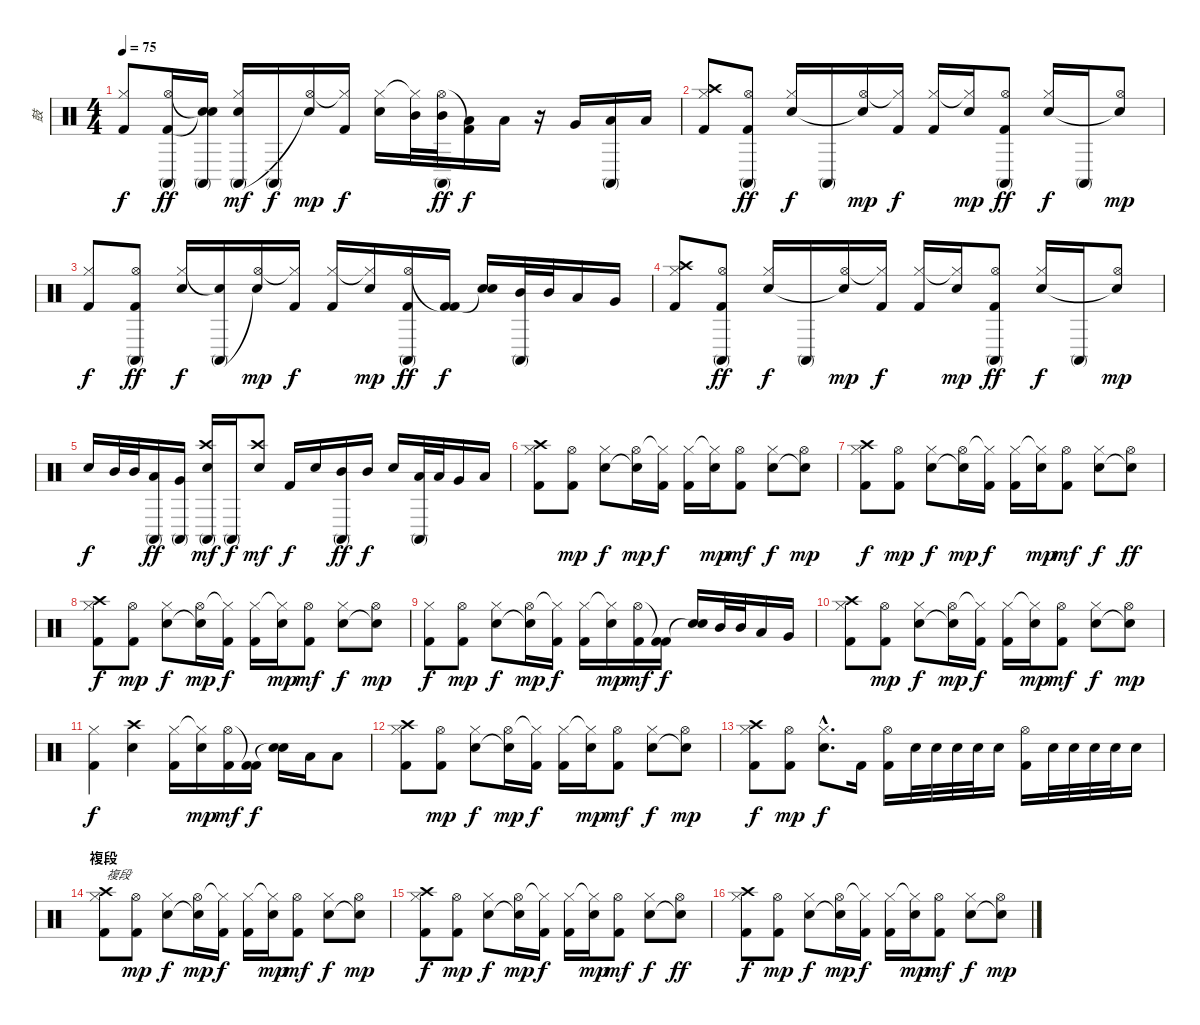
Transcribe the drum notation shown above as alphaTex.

\track ("鼓" "鼓") {instrument percussion}
\staff {score}
\articulation defaults
\ts (4 4)
\tempo 75
\clef neutral
\ks c
("Hi-Hat (closed)" "Kick (hit) 2").8{dy f} ("Hi-Hat (open)" "Conga high (mute)" "Kick (hit) 2").16{dy ff} ("Snare (hit)"{t} "Conga high (mute)" "Snare (hit)"{t}).16 ("Hi-Hat (closed)" "Conga high (mute)" "Electric Snare (hit)").16{dy mf} "Conga high (mute)".16{dy f} ("Hi-Hat (open)" "Snare (hit)"{t}).16{dy mp} ("Hi-Hat (closed)"{t} "Kick (hit) 2").16{dy f} ("Hi-Hat (closed)" "Electric Snare (hit)").16 ("Hi-Hat (closed)"{t} "Mid Tom (hit)").32 ("Hi-Hat (open)" "Mid Tom (hit)" "Conga high (mute)").32{dy ff} ("Kick (hit) 2"{t} "Low Tom (hit)").16{dy f} "Low Tom (hit)".16 r.16 "Very Low Tom (hit)".16 ("Conga high (mute)" "Low Floor Tom (hit)").16 "Low Floor Tom (hit)".16 |
("Hi-Hat (closed)" "Crash high (hit)" "Kick (hit) 2").8 ("Hi-Hat (open)" "Conga high (mute)" "Kick (hit) 2").8{dy ff} ("Hi-Hat (closed)" "Electric Snare (hit)").16{dy f} "Conga high (mute)".16 ("Hi-Hat (open)" "Snare (hit)"{t}).16{dy mp} ("Hi-Hat (closed)"{t} "Kick (hit) 2").16{dy f} ("Hi-Hat (closed)" "Kick (hit) 2").16 ("Hi-Hat (closed)"{t} "Electric Snare (hit)").16{dy mp} ("Hi-Hat (open)" "Conga high (mute)" "Kick (hit) 2").8{dy ff} ("Hi-Hat (closed)" "Electric Snare (hit)").16{dy f} "Conga high (mute)".16 ("Hi-Hat (open)" "Snare (hit)"{t}).8{dy mp} |
("Hi-Hat (closed)" "Kick (hit) 2").8{dy f} ("Hi-Hat (open)" "Conga high (mute)" "Kick (hit) 2").8{dy ff} ("Hi-Hat (closed)" "Electric Snare (hit)").16{dy f} ("Snare (hit)"{t} "Conga high (mute)").16 ("Hi-Hat (open)" "Snare (hit)"{t}).16{dy mp} ("Hi-Hat (closed)"{t} "Kick (hit) 2").16{dy f} ("Hi-Hat (closed)" "Kick (hit) 2").16 ("Hi-Hat (closed)"{t} "Electric Snare (hit)").16{dy mp} ("Hi-Hat (open)" "Conga high (mute)" "Kick (hit) 2").16{dy ff} ("Kick (hit) 2"{t} "Kick (hit) 2").16{dy f} ("Electric Snare (hit)" "Snare (hit)"{t}).16 ("Conga high (mute)" "Mid Tom (hit)").32 "Mid Tom (hit)".32 "Low Tom (hit)".16 "Very Low Tom (hit)".16 |
("Hi-Hat (closed)" "Crash high (hit)" "Kick (hit) 2").8 ("Hi-Hat (open)" "Conga high (mute)" "Kick (hit) 2").8{dy ff} ("Hi-Hat (closed)" "Electric Snare (hit)").16{dy f} "Conga high (mute)".16 ("Hi-Hat (open)" "Snare (hit)"{t}).16{dy mp} ("Hi-Hat (closed)"{t} "Kick (hit) 2").16{dy f} ("Hi-Hat (closed)" "Kick (hit) 2").16 ("Hi-Hat (closed)"{t} "Electric Snare (hit)").16{dy mp} ("Hi-Hat (open)" "Conga high (mute)" "Kick (hit) 2").8{dy ff} ("Hi-Hat (closed)" "Electric Snare (hit)").16{dy f} "Conga high (mute)".16 ("Hi-Hat (open)" "Snare (hit)"{t}).8{dy mp} |
"Electric Snare (hit)".16{dy f} "Mid Tom (hit)".32 "Mid Tom (hit)".32 ("Conga high (mute)" "Low Tom (hit)").16{dy ff} ("Conga high (mute)" "Very Low Tom (hit)").16 ("Crash high (hit)" "Conga high (mute)" "Electric Snare (hit)").16{dy mf} "Conga high (mute)".16{dy f} ("Crash high (hit)" "Electric Snare (hit)").8{dy mf} "Kick (hit) 2".16{dy f} "Electric Snare (hit)".16 ("Conga high (mute)" "Mid Tom (hit)").16{dy ff} "Mid Tom (hit)".16{dy f} "Electric Snare (hit)".16 ("Conga high (mute)" "Low Tom (hit)").32 "Low Tom (hit)".32 "Very Low Tom (hit)".16 "Low Floor Tom (hit)".16 |
\section ("" "")
("Hi-Hat (closed)" "Crash high (hit)" "Kick (hit) 2").8 ("Hi-Hat (open)" "Kick (hit) 2").8{dy mp} ("Hi-Hat (closed)" "Electric Snare (hit)").8{dy f} ("Hi-Hat (open)" "Snare (hit)"{t}).16{dy mp} ("Hi-Hat (closed)"{t} "Kick (hit) 2").16{dy f} ("Hi-Hat (closed)" "Kick (hit) 2").16 ("Hi-Hat (closed)"{t} "Electric Snare (hit)").16{dy mp} ("Hi-Hat (open)" "Kick (hit) 2").8{dy mf} ("Hi-Hat (closed)" "Electric Snare (hit)").8{dy f} ("Hi-Hat (open)" "Snare (hit)"{t}).8{dy mp} |
("Hi-Hat (closed)" "Crash high (hit)" "Kick (hit) 2").8{dy f} ("Hi-Hat (open)" "Kick (hit) 2").8{dy mp} ("Hi-Hat (closed)" "Electric Snare (hit)").8{dy f} ("Hi-Hat (open)" "Snare (hit)"{t}).16{dy mp} ("Hi-Hat (closed)"{t} "Kick (hit) 2").16{dy f} ("Hi-Hat (closed)" "Kick (hit) 2").16 ("Hi-Hat (closed)"{t} "Electric Snare (hit)").16{dy mp} ("Hi-Hat (open)" "Kick (hit) 2").8{dy mf} ("Hi-Hat (closed)" "Electric Snare (hit)").8{dy f} ("Hi-Hat (open)" "Snare (hit)"{t}).8{dy ff} |
("Hi-Hat (closed)" "Crash high (hit)" "Kick (hit) 2").8{dy f} ("Hi-Hat (open)" "Kick (hit) 2").8{dy mp} ("Hi-Hat (closed)" "Electric Snare (hit)").8{dy f} ("Hi-Hat (open)" "Snare (hit)"{t}).16{dy mp} ("Hi-Hat (closed)"{t} "Kick (hit) 2").16{dy f} ("Hi-Hat (closed)" "Kick (hit) 2").16 ("Hi-Hat (closed)"{t} "Electric Snare (hit)").16{dy mp} ("Hi-Hat (open)" "Kick (hit) 2").8{dy mf} ("Hi-Hat (closed)" "Electric Snare (hit)").8{dy f} ("Hi-Hat (open)" "Snare (hit)"{t}).8{dy mp} |
("Hi-Hat (closed)" "Kick (hit) 2").8{dy f} ("Hi-Hat (open)" "Kick (hit) 2").8{dy mp} ("Hi-Hat (closed)" "Electric Snare (hit)").8{dy f} ("Hi-Hat (open)" "Snare (hit)"{t}).16{dy mp} ("Hi-Hat (closed)"{t} "Kick (hit) 2").16{dy f} ("Hi-Hat (closed)" "Kick (hit) 2").16 ("Hi-Hat (closed)"{t} "Electric Snare (hit)").16{dy mp} ("Hi-Hat (open)" "Kick (hit) 2").16{dy mf} ("Kick (hit) 2"{t} "Kick (hit) 2").16{dy f} ("Electric Snare (hit)" "Snare (hit)"{t}).16 "Mid Tom (hit)".32 "Mid Tom (hit)".32 "Low Tom (hit)".16 "Very Low Tom (hit)".16 |
("Hi-Hat (closed)" "Crash high (hit)" "Kick (hit) 2").8 ("Hi-Hat (open)" "Kick (hit) 2").8{dy mp} ("Hi-Hat (closed)" "Electric Snare (hit)").8{dy f} ("Hi-Hat (open)" "Snare (hit)"{t}).16{dy mp} ("Hi-Hat (closed)"{t} "Kick (hit) 2").16{dy f} ("Hi-Hat (closed)" "Kick (hit) 2").16 ("Hi-Hat (closed)"{t} "Electric Snare (hit)").16{dy mp} ("Hi-Hat (open)" "Kick (hit) 2").8{dy mf} ("Hi-Hat (closed)" "Electric Snare (hit)").8{dy f} ("Hi-Hat (open)" "Snare (hit)"{t}).8{dy mp} |
("Hi-Hat (closed)" "Kick (hit) 2").4{dy f} ("Crash high (hit)" "Electric Snare (hit)").4 ("Hi-Hat (closed)" "Kick (hit) 2").16 ("Hi-Hat (closed)"{t} "Electric Snare (hit)").16{dy mp} ("Hi-Hat (open)" "Kick (hit) 2").16{dy mf} ("Kick (hit) 2"{t} "Kick (hit) 2").16{dy f} ("Electric Snare (hit)" "Snare (hit)"{t}).16 "Low Tom (hit)".16 "Low Tom (hit)".8 |
("Hi-Hat (closed)" "Crash high (hit)" "Kick (hit) 2").8 ("Hi-Hat (open)" "Kick (hit) 2").8{dy mp} ("Hi-Hat (closed)" "Electric Snare (hit)").8{dy f} ("Hi-Hat (open)" "Snare (hit)"{t}).16{dy mp} ("Hi-Hat (closed)"{t} "Kick (hit) 2").16{dy f} ("Hi-Hat (closed)" "Kick (hit) 2").16 ("Hi-Hat (closed)"{t} "Electric Snare (hit)").16{dy mp} ("Hi-Hat (open)" "Kick (hit) 2").8{dy mf} ("Hi-Hat (closed)" "Electric Snare (hit)").8{dy f} ("Hi-Hat (open)" "Snare (hit)"{t}).8{dy mp} |
("Hi-Hat (closed)" "Crash high (hit)" "Kick (hit) 2").8{dy f} ("Hi-Hat (open)" "Kick (hit) 2").8{dy mp} ("Hi-Hat (closed)"{hac} "Electric Snare (hit)"{hac}).8{d dy f} "Kick (hit) 2".16 ("Hi-Hat (open)" "Kick (hit) 2").16 "Electric Snare (hit)".32 "Electric Snare (hit)".32 "Electric Snare (hit)".32 "Electric Snare (hit)".32 "Electric Snare (hit)".16 ("Hi-Hat (open)" "Kick (hit) 2").16 "Electric Snare (hit)".32 "Electric Snare (hit)".32 "Electric Snare (hit)".32 "Electric Snare (hit)".32 "Electric Snare (hit)".16 |
\section ("" "複段")
("Hi-Hat (closed)" "Crash high (hit)" "Kick (hit) 2").8{txt "複段"} ("Hi-Hat (open)" "Kick (hit) 2").8{dy mp} ("Hi-Hat (closed)" "Electric Snare (hit)").8{dy f} ("Hi-Hat (open)" "Snare (hit)"{t}).16{dy mp} ("Hi-Hat (closed)"{t} "Kick (hit) 2").16{dy f} ("Hi-Hat (closed)" "Kick (hit) 2").16 ("Hi-Hat (closed)"{t} "Electric Snare (hit)").16{dy mp} ("Hi-Hat (open)" "Kick (hit) 2").8{dy mf} ("Hi-Hat (closed)" "Electric Snare (hit)").8{dy f} ("Hi-Hat (open)" "Snare (hit)"{t}).8{dy mp} |
("Hi-Hat (closed)" "Crash high (hit)" "Kick (hit) 2").8{dy f} ("Hi-Hat (open)" "Kick (hit) 2").8{dy mp} ("Hi-Hat (closed)" "Electric Snare (hit)").8{dy f} ("Hi-Hat (open)" "Snare (hit)"{t}).16{dy mp} ("Hi-Hat (closed)"{t} "Kick (hit) 2").16{dy f} ("Hi-Hat (closed)" "Kick (hit) 2").16 ("Hi-Hat (closed)"{t} "Electric Snare (hit)").16{dy mp} ("Hi-Hat (open)" "Kick (hit) 2").8{dy mf} ("Hi-Hat (closed)" "Electric Snare (hit)").8{dy f} ("Hi-Hat (open)" "Snare (hit)"{t}).8{dy ff} |
("Hi-Hat (closed)" "Crash high (hit)" "Kick (hit) 2").8{dy f} ("Hi-Hat (open)" "Kick (hit) 2").8{dy mp} ("Hi-Hat (closed)" "Electric Snare (hit)").8{dy f} ("Hi-Hat (open)" "Snare (hit)"{t}).16{dy mp} ("Hi-Hat (closed)"{t} "Kick (hit) 2").16{dy f} ("Hi-Hat (closed)" "Kick (hit) 2").16 ("Hi-Hat (closed)"{t} "Electric Snare (hit)").16{dy mp} ("Hi-Hat (open)" "Kick (hit) 2").8{dy mf} ("Hi-Hat (closed)" "Electric Snare (hit)").8{dy f} ("Hi-Hat (open)" "Snare (hit)"{t}).8{dy mp}
